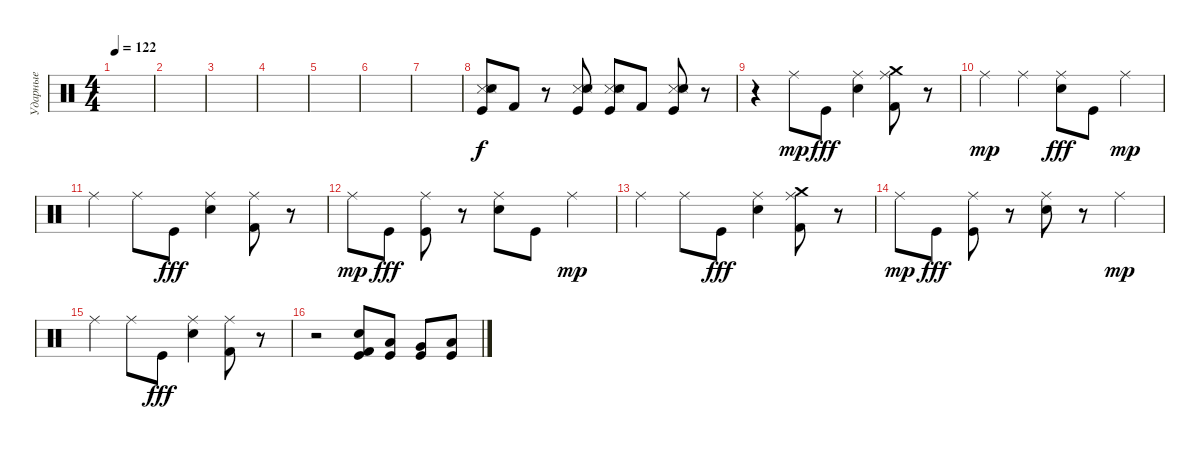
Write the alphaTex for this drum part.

\track ("Ударные" "Ударные") {instrument percussion}
\staff {score}
\articulation defaults
\ts (4 4)
\tempo 122
\clef neutral
\ks c
|
|
|
|
|
|
|
("Metronome (hit)" "Snare (side stick) 3" "Electric Snare (hit)" "Kick (hit)").8 "Kick (hit) 2".8 r.8 ("Metronome (hit)" "Snare (side stick) 3" "Electric Snare (hit)" "Kick (hit)").8 ("Metronome (hit)" "Snare (side stick) 3" "Electric Snare (hit)" "Kick (hit)").8 "Kick (hit) 2".8 ("Metronome (hit)" "Snare (side stick) 3" "Electric Snare (hit)" "Kick (hit)").8 r.8 |
r.4 "Ride (middle)".8{dy mp} "Kick (hit)".8{dy fff} ("Ride (middle)" "Electric Snare (hit)").4 ("Ride (middle)" "Crash medium (hit)" "Kick (hit) 2").8 r.8 |
"Ride (middle)".4{dy mp} "Ride (middle)".4 ("Ride (middle)" "Electric Snare (hit)").8{dy fff} "Kick (hit)".8 "Ride (middle)".4{dy mp} |
"Ride (middle)".4 "Ride (middle)".8 "Kick (hit)".8{dy fff} ("Ride (middle)" "Electric Snare (hit)").4 ("Ride (middle)" "Kick (hit) 2").8 r.8 |
"Ride (middle)".8{dy mp} "Kick (hit)".8{dy fff} ("Ride (middle)" "Kick (hit)").8 r.8 ("Ride (middle)" "Electric Snare (hit)").8 "Kick (hit)".8 "Ride (middle)".4{dy mp} |
"Ride (middle)".4 "Ride (middle)".8 "Kick (hit)".8{dy fff} ("Ride (middle)" "Electric Snare (hit)").4 ("Ride (middle)" "Crash medium (hit)" "Kick (hit) 2").8 r.8 |
"Ride (middle)".8{dy mp} "Kick (hit)".8{dy fff} ("Ride (middle)" "Kick (hit)").8 r.8 ("Ride (middle)" "Electric Snare (hit)").8 r.8 "Ride (middle)".4{dy mp} |
"Ride (middle)".4 "Ride (middle)".8 "Kick (hit)".8{dy fff} ("Ride (middle)" "Electric Snare (hit)").4 ("Ride (middle)" "Kick (hit) 2").8 r.8 |
r.2 ("Electric Snare (hit)" "Kick (hit)" "Kick (hit) 2").8 ("Low Tom (hit)" "Kick (hit)").8 ("Very Low Tom (hit)" "Kick (hit)").8 ("Low Floor Tom (hit)" "Kick (hit)").8
